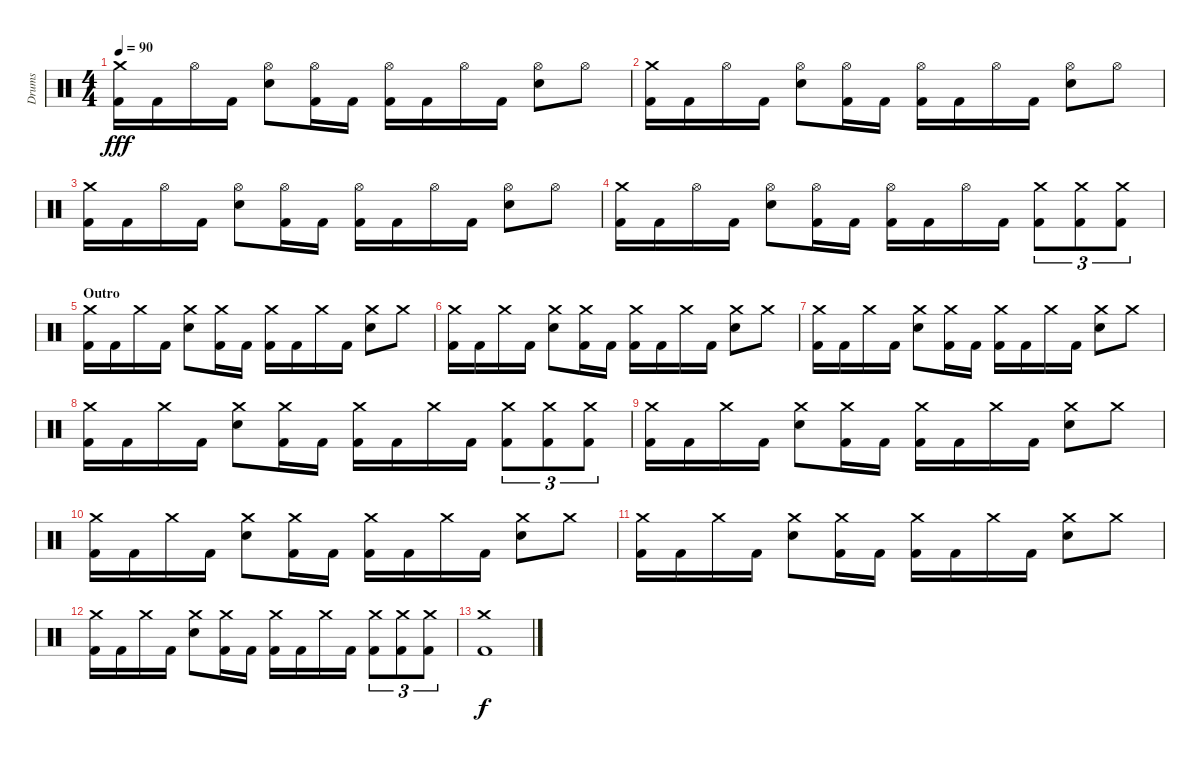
\track ("Drums" "Drums") {instrument percussion}
\staff {score}
\articulation defaults
\ts (4 4)
\tempo 90
\clef neutral
\ks c
("Crash medium (hit)" "Kick (hit) 2").16{dy fff} "Kick (hit) 2".16 "Hi-Hat (open)".16 "Kick (hit) 2".16 ("Hi-Hat (open)" "Electric Snare (hit)").8 ("Hi-Hat (open)" "Kick (hit) 2").16 "Kick (hit) 2".16 ("Hi-Hat (open)" "Kick (hit) 2").16 "Kick (hit) 2".16 "Hi-Hat (open)".16 "Kick (hit) 2".16 ("Hi-Hat (open)" "Electric Snare (hit)").8 "Hi-Hat (open)".8 |
("Crash medium (hit)" "Kick (hit) 2").16 "Kick (hit) 2".16 "Hi-Hat (open)".16 "Kick (hit) 2".16 ("Hi-Hat (open)" "Electric Snare (hit)").8 ("Hi-Hat (open)" "Kick (hit) 2").16 "Kick (hit) 2".16 ("Hi-Hat (open)" "Kick (hit) 2").16 "Kick (hit) 2".16 "Hi-Hat (open)".16 "Kick (hit) 2".16 ("Hi-Hat (open)" "Electric Snare (hit)").8 "Hi-Hat (open)".8 |
("Crash medium (hit)" "Kick (hit) 2").16 "Kick (hit) 2".16 "Hi-Hat (open)".16 "Kick (hit) 2".16 ("Hi-Hat (open)" "Electric Snare (hit)").8 ("Hi-Hat (open)" "Kick (hit) 2").16 "Kick (hit) 2".16 ("Hi-Hat (open)" "Kick (hit) 2").16 "Kick (hit) 2".16 "Hi-Hat (open)".16 "Kick (hit) 2".16 ("Hi-Hat (open)" "Electric Snare (hit)").8 "Hi-Hat (open)".8 |
("Crash medium (hit)" "Kick (hit) 2").16 "Kick (hit) 2".16 "Hi-Hat (open)".16 "Kick (hit) 2".16 ("Hi-Hat (open)" "Electric Snare (hit)").8 ("Hi-Hat (open)" "Kick (hit) 2").16 "Kick (hit) 2".16 ("Hi-Hat (open)" "Kick (hit) 2").16 "Kick (hit) 2".16 "Hi-Hat (open)".16 "Kick (hit) 2".16 ("Crash medium (hit)" "Kick (hit) 2").8{tu (3 2)} ("Crash medium (hit)" "Kick (hit) 2").8{tu (3 2)} ("Crash medium (hit)" "Kick (hit) 2").8{tu (3 2)} |
\section ("" "Outro")
("Crash medium (hit)" "Kick (hit) 2").16 "Kick (hit) 2".16 "Crash medium (hit)".16 "Kick (hit) 2".16 ("Crash medium (hit)" "Electric Snare (hit)").8 ("Crash medium (hit)" "Kick (hit) 2").16 "Kick (hit) 2".16 ("Crash medium (hit)" "Kick (hit) 2").16 "Kick (hit) 2".16 "Crash medium (hit)".16 "Kick (hit) 2".16 ("Crash medium (hit)" "Electric Snare (hit)").8 "Crash medium (hit)".8 |
("Crash medium (hit)" "Kick (hit) 2").16 "Kick (hit) 2".16 "Crash medium (hit)".16 "Kick (hit) 2".16 ("Crash medium (hit)" "Electric Snare (hit)").8 ("Crash medium (hit)" "Kick (hit) 2").16 "Kick (hit) 2".16 ("Crash medium (hit)" "Kick (hit) 2").16 "Kick (hit) 2".16 "Crash medium (hit)".16 "Kick (hit) 2".16 ("Crash medium (hit)" "Electric Snare (hit)").8 "Crash medium (hit)".8 |
("Crash medium (hit)" "Kick (hit) 2").16 "Kick (hit) 2".16 "Crash medium (hit)".16 "Kick (hit) 2".16 ("Crash medium (hit)" "Electric Snare (hit)").8 ("Crash medium (hit)" "Kick (hit) 2").16 "Kick (hit) 2".16 ("Crash medium (hit)" "Kick (hit) 2").16 "Kick (hit) 2".16 "Crash medium (hit)".16 "Kick (hit) 2".16 ("Crash medium (hit)" "Electric Snare (hit)").8 "Crash medium (hit)".8 |
("Crash medium (hit)" "Kick (hit) 2").16 "Kick (hit) 2".16 "Crash medium (hit)".16 "Kick (hit) 2".16 ("Crash medium (hit)" "Electric Snare (hit)").8 ("Crash medium (hit)" "Kick (hit) 2").16 "Kick (hit) 2".16 ("Crash medium (hit)" "Kick (hit) 2").16 "Kick (hit) 2".16 "Crash medium (hit)".16 "Kick (hit) 2".16 ("Crash medium (hit)" "Kick (hit) 2").8{tu (3 2)} ("Crash medium (hit)" "Kick (hit) 2").8{tu (3 2)} ("Crash medium (hit)" "Kick (hit) 2").8{tu (3 2)} |
("Crash medium (hit)" "Kick (hit) 2").16 "Kick (hit) 2".16 "Crash medium (hit)".16 "Kick (hit) 2".16 ("Crash medium (hit)" "Electric Snare (hit)").8 ("Crash medium (hit)" "Kick (hit) 2").16 "Kick (hit) 2".16 ("Crash medium (hit)" "Kick (hit) 2").16 "Kick (hit) 2".16 "Crash medium (hit)".16 "Kick (hit) 2".16 ("Crash medium (hit)" "Electric Snare (hit)").8 "Crash medium (hit)".8 |
("Crash medium (hit)" "Kick (hit) 2").16 "Kick (hit) 2".16 "Crash medium (hit)".16 "Kick (hit) 2".16 ("Crash medium (hit)" "Electric Snare (hit)").8 ("Crash medium (hit)" "Kick (hit) 2").16 "Kick (hit) 2".16 ("Crash medium (hit)" "Kick (hit) 2").16 "Kick (hit) 2".16 "Crash medium (hit)".16 "Kick (hit) 2".16 ("Crash medium (hit)" "Electric Snare (hit)").8 "Crash medium (hit)".8 |
("Crash medium (hit)" "Kick (hit) 2").16 "Kick (hit) 2".16 "Crash medium (hit)".16 "Kick (hit) 2".16 ("Crash medium (hit)" "Electric Snare (hit)").8 ("Crash medium (hit)" "Kick (hit) 2").16 "Kick (hit) 2".16 ("Crash medium (hit)" "Kick (hit) 2").16 "Kick (hit) 2".16 "Crash medium (hit)".16 "Kick (hit) 2".16 ("Crash medium (hit)" "Electric Snare (hit)").8 "Crash medium (hit)".8 |
("Crash medium (hit)" "Kick (hit) 2").16 "Kick (hit) 2".16 "Crash medium (hit)".16 "Kick (hit) 2".16 ("Crash medium (hit)" "Electric Snare (hit)").8 ("Crash medium (hit)" "Kick (hit) 2").16 "Kick (hit) 2".16 ("Crash medium (hit)" "Kick (hit) 2").16 "Kick (hit) 2".16 "Crash medium (hit)".16 "Kick (hit) 2".16 ("Crash medium (hit)" "Kick (hit) 2").8{tu (3 2)} ("Crash medium (hit)" "Kick (hit) 2").8{tu (3 2)} ("Crash medium (hit)" "Kick (hit) 2").8{tu (3 2)} |
("Crash medium (hit)" "Kick (hit) 2").1{dy f}
